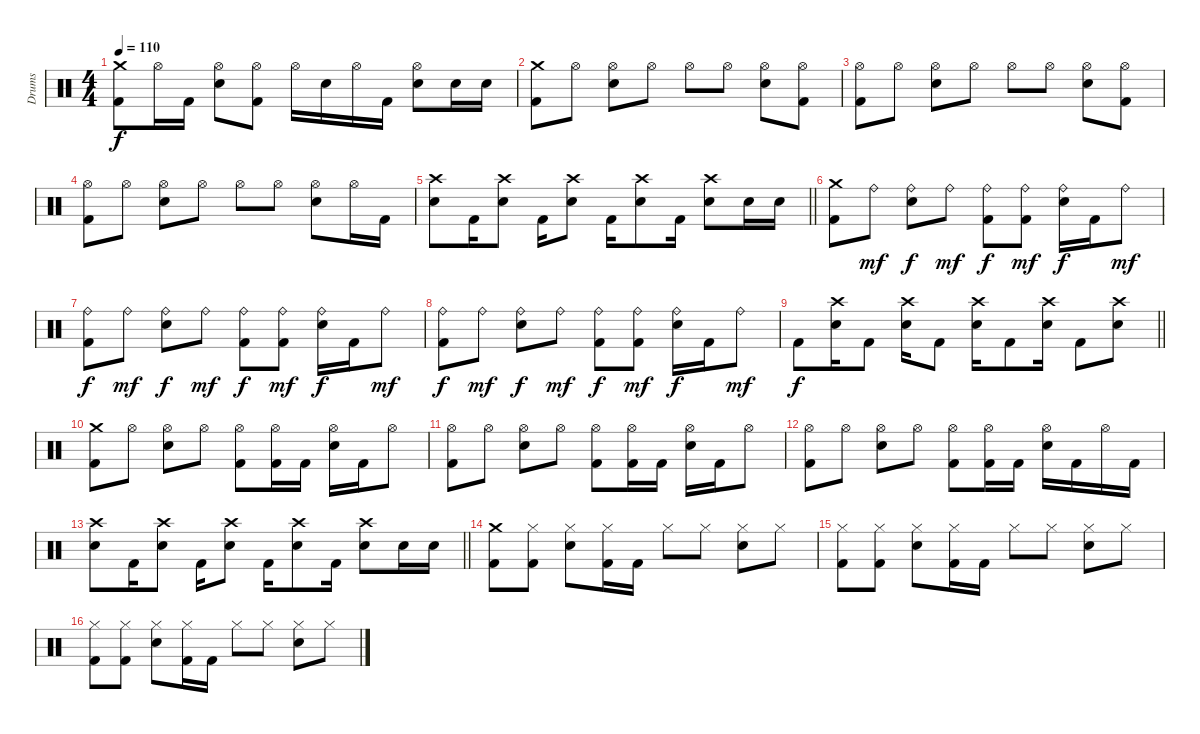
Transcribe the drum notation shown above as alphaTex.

\track ("Drums" "Drums") {instrument percussion}
\staff {score}
\articulation defaults
\ts (4 4)
\tempo 110
\clef neutral
\ks c
("Crash medium (hit)" "Kick (hit) 2").8{dy f} "Hi-Hat (open)".16 "Kick (hit) 2".16 ("Hi-Hat (open)" "Snare (hit) 2").8 ("Hi-Hat (open)" "Kick (hit) 2").8 "Hi-Hat (open)".16 "Snare (hit) 2".16 "Hi-Hat (open)".16 "Kick (hit) 2".16 ("Hi-Hat (open)" "Snare (hit) 2").8 "Snare (hit) 2".16 "Snare (hit) 2".16 |
("Crash medium (hit)" "Kick (hit) 2").8 "Hi-Hat (open)".8 ("Hi-Hat (open)" "Snare (hit) 2").8 "Hi-Hat (open)".8 "Hi-Hat (open)".8 "Hi-Hat (open)".8 ("Hi-Hat (open)" "Snare (hit) 2").8 ("Hi-Hat (open)" "Kick (hit) 2").8 |
("Hi-Hat (open)" "Kick (hit) 2").8 "Hi-Hat (open)".8 ("Hi-Hat (open)" "Snare (hit) 2").8 "Hi-Hat (open)".8 "Hi-Hat (open)".8 "Hi-Hat (open)".8 ("Hi-Hat (open)" "Snare (hit) 2").8 ("Hi-Hat (open)" "Kick (hit) 2").8 |
("Hi-Hat (open)" "Kick (hit) 2").8 "Hi-Hat (open)".8 ("Hi-Hat (open)" "Snare (hit) 2").8 "Hi-Hat (open)".8 "Hi-Hat (open)".8 "Hi-Hat (open)".8 ("Hi-Hat (open)" "Snare (hit) 2").8 "Hi-Hat (open)".16 "Kick (hit) 2".16 |
\barLineRight lightlight
("Crash high (hit)" "Snare (hit) 2").8 "Kick (hit) 2".16 ("Crash high (hit)" "Snare (hit) 2").8 "Kick (hit) 2".16 ("Crash high (hit)" "Snare (hit) 2").8 "Kick (hit) 2".16 ("Crash high (hit)" "Snare (hit) 2").8 "Kick (hit) 2".16 ("Crash high (hit)" "Snare (hit) 2").8 "Snare (hit) 2".16 "Snare (hit) 2".16 |
("Crash medium (hit)" "Kick (hit) 2").8 "Ride (bell)".8{dy mf} ("Ride (bell)" "Snare (hit) 2").8{dy f} "Ride (bell)".8{dy mf} ("Ride (bell)" "Kick (hit) 2").8{dy f} ("Ride (bell)" "Kick (hit) 2").8{dy mf} ("Ride (bell)" "Snare (hit) 2").16{dy f} "Kick (hit) 2".16 "Ride (bell)".8{dy mf} |
("Ride (bell)" "Kick (hit) 2").8{dy f} "Ride (bell)".8{dy mf} ("Ride (bell)" "Snare (hit) 2").8{dy f} "Ride (bell)".8{dy mf} ("Ride (bell)" "Kick (hit) 2").8{dy f} ("Ride (bell)" "Kick (hit) 2").8{dy mf} ("Ride (bell)" "Snare (hit) 2").16{dy f} "Kick (hit) 2".16 "Ride (bell)".8{dy mf} |
("Ride (bell)" "Kick (hit) 2").8{dy f} "Ride (bell)".8{dy mf} ("Ride (bell)" "Snare (hit) 2").8{dy f} "Ride (bell)".8{dy mf} ("Ride (bell)" "Kick (hit) 2").8{dy f} ("Ride (bell)" "Kick (hit) 2").8{dy mf} ("Ride (bell)" "Snare (hit) 2").16{dy f} "Kick (hit) 2".16 "Ride (bell)".8{dy mf} |
\barLineRight lightlight "Kick (hit) 2".8{dy f}
("Crash high (hit)" "Snare (hit) 2").16 "Kick (hit) 2".8 ("Crash high (hit)" "Snare (hit) 2").16 "Kick (hit) 2".8 ("Crash high (hit)" "Snare (hit) 2").16 "Kick (hit) 2".8 ("Crash high (hit)" "Snare (hit) 2").16 "Kick (hit) 2".8 ("Crash high (hit)" "Snare (hit) 2").8 |
("Crash medium (hit)" "Kick (hit) 2").8 "Hi-Hat (open)".8 ("Hi-Hat (open)" "Snare (hit) 2").8 "Hi-Hat (open)".8 ("Hi-Hat (open)" "Kick (hit) 2").8 ("Hi-Hat (open)" "Kick (hit) 2").16 "Kick (hit) 2".16 ("Hi-Hat (open)" "Snare (hit) 2").16 "Kick (hit) 2".16 "Hi-Hat (open)".8 |
("Hi-Hat (open)" "Kick (hit) 2").8 "Hi-Hat (open)".8 ("Hi-Hat (open)" "Snare (hit) 2").8 "Hi-Hat (open)".8 ("Hi-Hat (open)" "Kick (hit) 2").8 ("Hi-Hat (open)" "Kick (hit) 2").16 "Kick (hit) 2".16 ("Hi-Hat (open)" "Snare (hit) 2").16 "Kick (hit) 2".16 "Hi-Hat (open)".8 |
("Hi-Hat (open)" "Kick (hit) 2").8 "Hi-Hat (open)".8 ("Hi-Hat (open)" "Snare (hit) 2").8 "Hi-Hat (open)".8 ("Hi-Hat (open)" "Kick (hit) 2").8 ("Hi-Hat (open)" "Kick (hit) 2").16 "Kick (hit) 2".16 ("Hi-Hat (open)" "Snare (hit) 2").16 "Kick (hit) 2".16 "Hi-Hat (open)".16 "Kick (hit) 2".16 |
\barLineRight lightlight
("Crash high (hit)" "Snare (hit) 2").8 "Kick (hit) 2".16 ("Crash high (hit)" "Snare (hit) 2").8 "Kick (hit) 2".16 ("Crash high (hit)" "Snare (hit) 2").8 "Kick (hit) 2".16 ("Crash high (hit)" "Snare (hit) 2").8 "Kick (hit) 2".16 ("Crash high (hit)" "Snare (hit) 2").8 "Snare (hit) 2".16 "Snare (hit) 2".16 |
("Crash medium (hit)" "Kick (hit) 2").8 ("Hi-Hat (closed)" "Kick (hit) 2").8 ("Hi-Hat (closed)" "Snare (hit) 2").8 ("Hi-Hat (closed)" "Kick (hit) 2").16 "Kick (hit) 2".16 "Hi-Hat (closed)".8 "Hi-Hat (closed)".8 ("Hi-Hat (closed)" "Snare (hit) 2").8 "Hi-Hat (closed)".8 |
("Hi-Hat (closed)" "Kick (hit) 2").8 ("Hi-Hat (closed)" "Kick (hit) 2").8 ("Hi-Hat (closed)" "Snare (hit) 2").8 ("Hi-Hat (closed)" "Kick (hit) 2").16 "Kick (hit) 2".16 "Hi-Hat (closed)".8 "Hi-Hat (closed)".8 ("Hi-Hat (closed)" "Snare (hit) 2").8 "Hi-Hat (closed)".8 |
("Hi-Hat (closed)" "Kick (hit) 2").8 ("Hi-Hat (closed)" "Kick (hit) 2").8 ("Hi-Hat (closed)" "Snare (hit) 2").8 ("Hi-Hat (closed)" "Kick (hit) 2").16 "Kick (hit) 2".16 "Hi-Hat (closed)".8 "Hi-Hat (closed)".8 ("Hi-Hat (closed)" "Snare (hit) 2").8 "Hi-Hat (closed)".8
